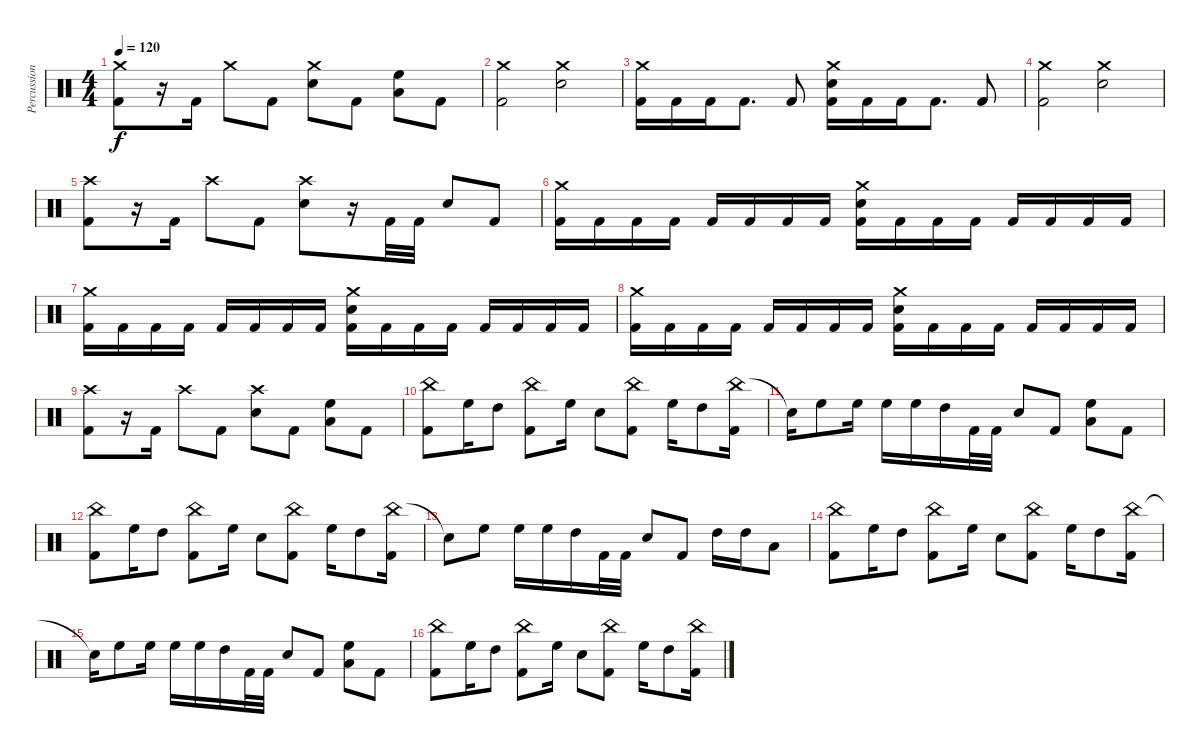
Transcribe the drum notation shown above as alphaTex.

\track ("Percussion" "Percussion") {instrument percussion}
\staff {score}
\articulation defaults
\ts (4 4)
\tempo 120
\clef neutral
\ks c
("Crash medium (hit)" "Kick (hit) 2").8{dy f} r.16 "Kick (hit) 2".16 "Crash medium (hit)".8 "Kick (hit) 2".8 ("Crash medium (hit)" "Electric Snare (hit)").8 "Kick (hit) 2".8 ("High Floor Tom (hit)" "Low Floor Tom (hit)").8 "Kick (hit) 2".8 |
("Crash medium (hit)" "Kick (hit) 2").2 ("Crash medium (hit)" "Electric Snare (hit)").2 |
("Crash medium (hit)" "Kick (hit) 2").16 "Kick (hit) 2".16 "Kick (hit) 2".16 "Kick (hit) 2".8{d} "Kick (hit) 2".8 ("Crash medium (hit)" "Electric Snare (hit)" "Kick (hit) 2").16 "Kick (hit) 2".16 "Kick (hit) 2".16 "Kick (hit) 2".8{d} "Kick (hit) 2".8 |
("Crash medium (hit)" "Kick (hit) 2").2 ("Crash medium (hit)" "Electric Snare (hit)").2 |
("Crash high (hit)" "Kick (hit) 2").8 r.16 "Kick (hit) 2".16 "Crash high (hit)".8 "Kick (hit) 2".8 ("Crash high (hit)" "Electric Snare (hit)").8 r.16 "Kick (hit) 2".32 "Kick (hit) 2".32 "Electric Snare (hit)".8 "Kick (hit) 2".8 |
("Crash medium (hit)" "Kick (hit) 2").16 "Kick (hit) 2".16 "Kick (hit) 2".16 "Kick (hit) 2".16 "Kick (hit) 2".16 "Kick (hit) 2".16 "Kick (hit) 2".16 "Kick (hit) 2".16 ("Crash medium (hit)" "Electric Snare (hit)" "Kick (hit) 2").16 "Kick (hit) 2".16 "Kick (hit) 2".16 "Kick (hit) 2".16 "Kick (hit) 2".16 "Kick (hit) 2".16 "Kick (hit) 2".16 "Kick (hit) 2".16 |
("Crash medium (hit)" "Kick (hit) 2").16 "Kick (hit) 2".16 "Kick (hit) 2".16 "Kick (hit) 2".16 "Kick (hit) 2".16 "Kick (hit) 2".16 "Kick (hit) 2".16 "Kick (hit) 2".16 ("Crash medium (hit)" "Electric Snare (hit)" "Kick (hit) 2").16 "Kick (hit) 2".16 "Kick (hit) 2".16 "Kick (hit) 2".16 "Kick (hit) 2".16 "Kick (hit) 2".16 "Kick (hit) 2".16 "Kick (hit) 2".16 |
("Crash medium (hit)" "Kick (hit) 2").16 "Kick (hit) 2".16 "Kick (hit) 2".16 "Kick (hit) 2".16 "Kick (hit) 2".16 "Kick (hit) 2".16 "Kick (hit) 2".16 "Kick (hit) 2".16 ("Crash medium (hit)" "Electric Snare (hit)" "Kick (hit) 2").16 "Kick (hit) 2".16 "Kick (hit) 2".16 "Kick (hit) 2".16 "Kick (hit) 2".16 "Kick (hit) 2".16 "Kick (hit) 2".16 "Kick (hit) 2".16 |
("Crash high (hit)" "Kick (hit) 2").8 r.16 "Kick (hit) 2".16 "Crash high (hit)".8 "Kick (hit) 2".8 ("Crash high (hit)" "Electric Snare (hit)").8 "Kick (hit) 2".8 ("High Floor Tom (hit)" "Low Floor Tom (hit)").8 "Kick (hit) 2".8 |
("China (hit)" "Kick (hit) 2").8 "High Floor Tom (hit)".16 "High Tom (hit)".8 ("China (hit)" "Kick (hit) 2").8 "High Floor Tom (hit)".16 "Electric Snare (hit)".8 ("China (hit)" "Kick (hit) 2").8 "High Floor Tom (hit)".16 "High Tom (hit)".8 ("China (hit)" "Kick (hit) 2").16 |
"Snare (hit)"{t}.16 "High Floor Tom (hit)".8 "High Floor Tom (hit)".16 "High Floor Tom (hit)".16 "High Floor Tom (hit)".16 "High Tom (hit)".16 "Kick (hit) 2".32 "Kick (hit) 2".32 "Electric Snare (hit)".8 "Kick (hit) 2".8 ("High Floor Tom (hit)" "Low Floor Tom (hit)").8 "Kick (hit) 2".8 |
("China (hit)" "Kick (hit) 2").8 "High Floor Tom (hit)".16 "High Tom (hit)".8 ("China (hit)" "Kick (hit) 2").8 "High Floor Tom (hit)".16 "Electric Snare (hit)".8 ("China (hit)" "Kick (hit) 2").8 "High Floor Tom (hit)".16 "High Tom (hit)".8 ("China (hit)" "Kick (hit) 2").16 |
"Snare (hit)"{t}.8 "High Floor Tom (hit)".8 "High Floor Tom (hit)".16 "High Floor Tom (hit)".16 "High Tom (hit)".16 "Kick (hit) 2".32 "Kick (hit) 2".32 "Electric Snare (hit)".8 "Kick (hit) 2".8 "High Tom (hit)".16 "High Tom (hit)".16 "Low Floor Tom (hit)".8 |
("China (hit)" "Kick (hit) 2").8 "High Floor Tom (hit)".16 "High Tom (hit)".8 ("China (hit)" "Kick (hit) 2").8 "High Floor Tom (hit)".16 "Electric Snare (hit)".8 ("China (hit)" "Kick (hit) 2").8 "High Floor Tom (hit)".16 "High Tom (hit)".8 ("China (hit)" "Kick (hit) 2").16 |
"Snare (hit)"{t}.16 "High Floor Tom (hit)".8 "High Floor Tom (hit)".16 "High Floor Tom (hit)".16 "High Floor Tom (hit)".16 "High Tom (hit)".16 "Kick (hit) 2".32 "Kick (hit) 2".32 "Electric Snare (hit)".8 "Kick (hit) 2".8 ("High Floor Tom (hit)" "Low Floor Tom (hit)").8 "Kick (hit) 2".8 |
("China (hit)" "Kick (hit) 2").8 "High Floor Tom (hit)".16 "High Tom (hit)".8 ("China (hit)" "Kick (hit) 2").8 "High Floor Tom (hit)".16 "Electric Snare (hit)".8 ("China (hit)" "Kick (hit) 2").8 "High Floor Tom (hit)".16 "High Tom (hit)".8 ("China (hit)" "Kick (hit) 2").16
